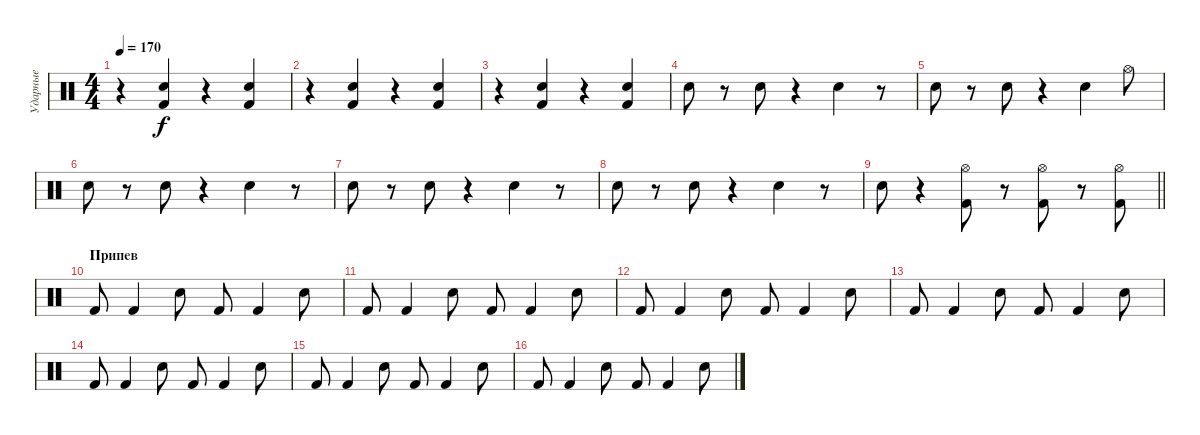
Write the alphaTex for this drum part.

\track ("Ударные" "Ударные") {instrument percussion}
\staff {score}
\articulation defaults
\ts (4 4)
\tempo 170
\clef neutral
\ks c
r.4{dy f} ("Electric Snare (hit)" "Kick (hit) 2").4 r.4 ("Electric Snare (hit)" "Kick (hit) 2").4 |
r.4 ("Electric Snare (hit)" "Kick (hit) 2").4 r.4 ("Electric Snare (hit)" "Kick (hit) 2").4 |
r.4 ("Electric Snare (hit)" "Kick (hit) 2").4 r.4 ("Electric Snare (hit)" "Kick (hit) 2").4 |
"Electric Snare (hit)".8 r.8 "Electric Snare (hit)".8 r.4 "Electric Snare (hit)".4 r.8 |
"Electric Snare (hit)".8 r.8 "Electric Snare (hit)".8 r.4 "Electric Snare (hit)".4 "Hi-Hat (open)".8 |
"Electric Snare (hit)".8 r.8 "Electric Snare (hit)".8 r.4 "Electric Snare (hit)".4 r.8 |
"Electric Snare (hit)".8 r.8 "Electric Snare (hit)".8 r.4 "Electric Snare (hit)".4 r.8 |
"Electric Snare (hit)".8 r.8 "Electric Snare (hit)".8 r.4 "Electric Snare (hit)".4 r.8 |
\barLineRight lightlight "Electric Snare (hit)".8
r.4 ("Hi-Hat (open)" "Kick (hit) 2").8 r.8 ("Hi-Hat (open)" "Kick (hit) 2").8 r.8 ("Hi-Hat (open)" "Kick (hit) 2").8 |
\section ("" "Припев")
"Kick (hit) 2".8 "Kick (hit) 2".4 "Electric Snare (hit)".8 "Kick (hit) 2".8 "Kick (hit) 2".4 "Electric Snare (hit)".8 |
"Kick (hit) 2".8 "Kick (hit) 2".4 "Electric Snare (hit)".8 "Kick (hit) 2".8 "Kick (hit) 2".4 "Electric Snare (hit)".8 |
"Kick (hit) 2".8 "Kick (hit) 2".4 "Electric Snare (hit)".8 "Kick (hit) 2".8 "Kick (hit) 2".4 "Electric Snare (hit)".8 |
"Kick (hit) 2".8 "Kick (hit) 2".4 "Electric Snare (hit)".8 "Kick (hit) 2".8 "Kick (hit) 2".4 "Electric Snare (hit)".8 |
"Kick (hit) 2".8 "Kick (hit) 2".4 "Electric Snare (hit)".8 "Kick (hit) 2".8 "Kick (hit) 2".4 "Electric Snare (hit)".8 |
"Kick (hit) 2".8 "Kick (hit) 2".4 "Electric Snare (hit)".8 "Kick (hit) 2".8 "Kick (hit) 2".4 "Electric Snare (hit)".8 |
"Kick (hit) 2".8 "Kick (hit) 2".4 "Electric Snare (hit)".8 "Kick (hit) 2".8 "Kick (hit) 2".4 "Electric Snare (hit)".8
